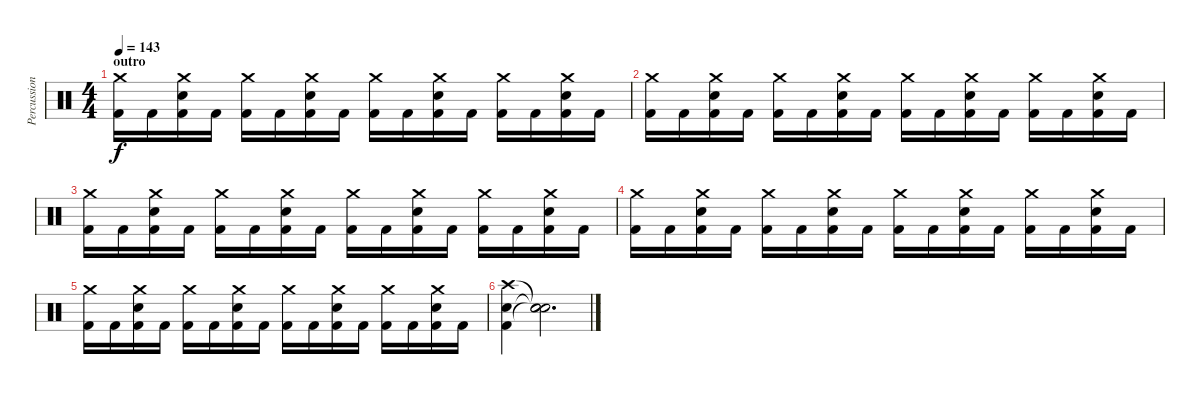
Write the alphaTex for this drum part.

\track ("Percussion" "Percussion") {instrument percussion}
\staff {score}
\articulation defaults
\ts (4 4)
\section ("" "outro")
\tempo 143
\clef neutral
\ks c
("Crash medium (hit)" "Kick (hit) 2").16{dy f} "Kick (hit) 2".16 ("Crash medium (hit)" "Snare (hit) 2" "Kick (hit) 2").16 "Kick (hit) 2".16 ("Crash medium (hit)" "Kick (hit) 2").16 "Kick (hit) 2".16 ("Crash medium (hit)" "Snare (hit) 2" "Kick (hit) 2").16 "Kick (hit) 2".16 ("Crash medium (hit)" "Kick (hit) 2").16 "Kick (hit) 2".16 ("Crash medium (hit)" "Snare (hit) 2" "Kick (hit) 2").16 "Kick (hit) 2".16 ("Crash medium (hit)" "Kick (hit) 2").16 "Kick (hit) 2".16 ("Crash medium (hit)" "Snare (hit) 2" "Kick (hit) 2").16 "Kick (hit) 2".16 |
("Crash medium (hit)" "Kick (hit) 2").16 "Kick (hit) 2".16 ("Crash medium (hit)" "Snare (hit) 2" "Kick (hit) 2").16 "Kick (hit) 2".16 ("Crash medium (hit)" "Kick (hit) 2").16 "Kick (hit) 2".16 ("Crash medium (hit)" "Snare (hit) 2" "Kick (hit) 2").16 "Kick (hit) 2".16 ("Crash medium (hit)" "Kick (hit) 2").16 "Kick (hit) 2".16 ("Crash medium (hit)" "Snare (hit) 2" "Kick (hit) 2").16 "Kick (hit) 2".16 ("Crash medium (hit)" "Kick (hit) 2").16 "Kick (hit) 2".16 ("Crash medium (hit)" "Snare (hit) 2" "Kick (hit) 2").16 "Kick (hit) 2".16 |
("Crash medium (hit)" "Kick (hit) 2").16 "Kick (hit) 2".16 ("Crash medium (hit)" "Snare (hit) 2" "Kick (hit) 2").16 "Kick (hit) 2".16 ("Crash medium (hit)" "Kick (hit) 2").16 "Kick (hit) 2".16 ("Crash medium (hit)" "Snare (hit) 2" "Kick (hit) 2").16 "Kick (hit) 2".16 ("Crash medium (hit)" "Kick (hit) 2").16 "Kick (hit) 2".16 ("Crash medium (hit)" "Snare (hit) 2" "Kick (hit) 2").16 "Kick (hit) 2".16 ("Crash medium (hit)" "Kick (hit) 2").16 "Kick (hit) 2".16 ("Crash medium (hit)" "Snare (hit) 2" "Kick (hit) 2").16 "Kick (hit) 2".16 |
("Crash medium (hit)" "Kick (hit) 2").16 "Kick (hit) 2".16 ("Crash medium (hit)" "Snare (hit) 2" "Kick (hit) 2").16 "Kick (hit) 2".16 ("Crash medium (hit)" "Kick (hit) 2").16 "Kick (hit) 2".16 ("Crash medium (hit)" "Snare (hit) 2" "Kick (hit) 2").16 "Kick (hit) 2".16 ("Crash medium (hit)" "Kick (hit) 2").16 "Kick (hit) 2".16 ("Crash medium (hit)" "Snare (hit) 2" "Kick (hit) 2").16 "Kick (hit) 2".16 ("Crash medium (hit)" "Kick (hit) 2").16 "Kick (hit) 2".16 ("Crash medium (hit)" "Snare (hit) 2" "Kick (hit) 2").16 "Kick (hit) 2".16 |
("Crash medium (hit)" "Kick (hit) 2").16 "Kick (hit) 2".16 ("Crash medium (hit)" "Snare (hit) 2" "Kick (hit) 2").16 "Kick (hit) 2".16 ("Crash medium (hit)" "Kick (hit) 2").16 "Kick (hit) 2".16 ("Crash medium (hit)" "Snare (hit) 2" "Kick (hit) 2").16 "Kick (hit) 2".16 ("Crash medium (hit)" "Kick (hit) 2").16 "Kick (hit) 2".16 ("Crash medium (hit)" "Snare (hit) 2" "Kick (hit) 2").16 "Kick (hit) 2".16 ("Crash medium (hit)" "Kick (hit) 2").16 "Kick (hit) 2".16 ("Crash medium (hit)" "Snare (hit) 2" "Kick (hit) 2").16 "Kick (hit) 2".16 |
("Crash high (hit)" "Snare (hit) 2" "Kick (hit) 2").4 ("Snare (hit)"{t} "Snare (hit)"{t} "Snare (hit)"{t}).2{d}
